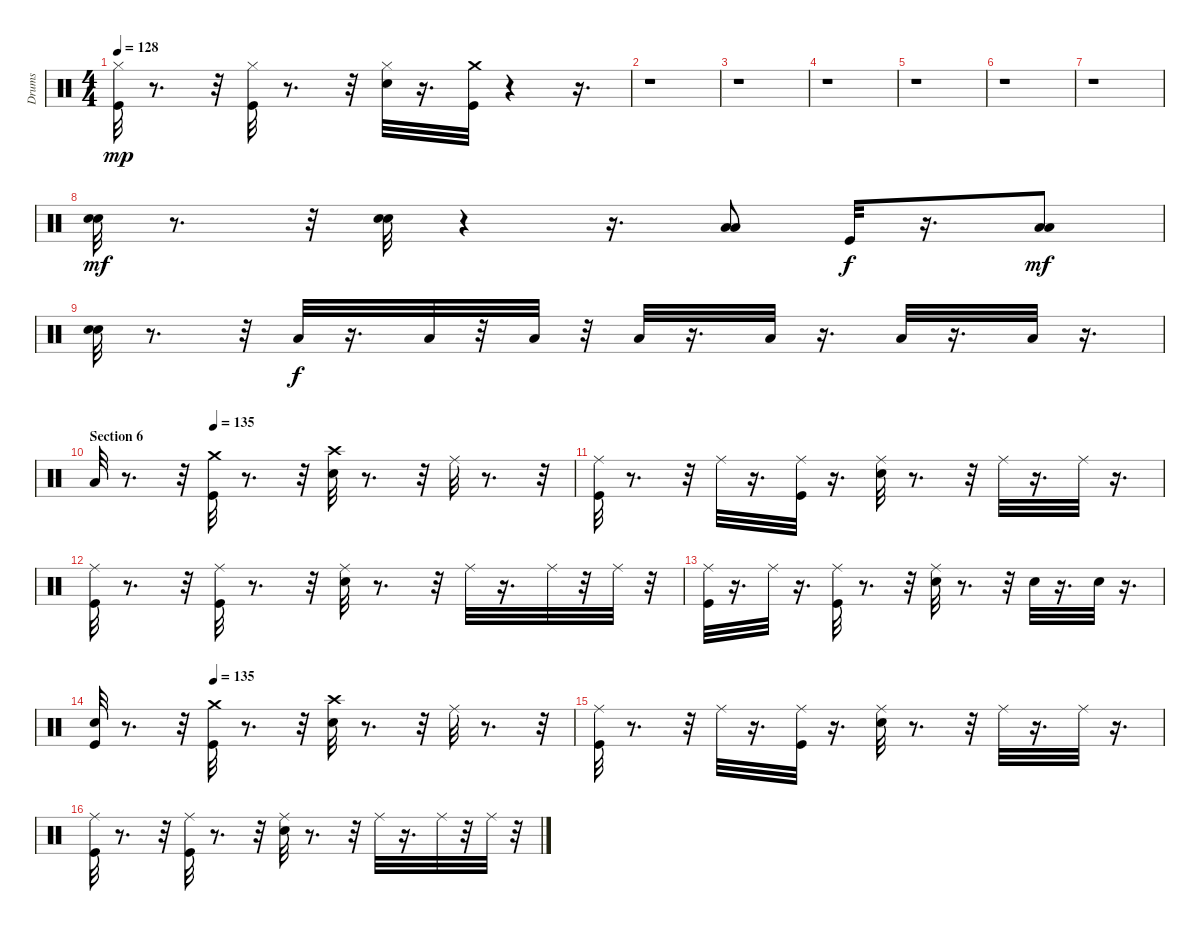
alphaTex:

\track ("Drums" "Drums") {instrument percussion}
\staff {score}
\articulation defaults
\ts (4 4)
\tempo 128
\clef neutral
\ks c
("Kick (hit)" "Hi-Hat (closed)").32{dy mp} r.8{d} r.32 ("Kick (hit)" "Hi-Hat (closed)").32 r.8{d} r.32 ("Snare (hit) 2" "Hi-Hat (closed)").32 r.16{d} ("Kick (hit)" "Crash medium (hit)").32 r.4 r.16{d} |
r.1 |
r.1 |
r.1 |
r.1 |
r.1 |
r.1 |
("Electric Snare (hit)" "Snare (hit) 2").32{dy mf} r.8{d} r.32 ("Electric Snare (hit)" "Snare (hit) 2").32 r.4 r.16{d} ("Low Tom (hit)" "Low Tom (hit)").8 "Kick (hit)".32{dy f} r.16{d} ("Low Floor Tom (hit)" "Low Floor Tom (hit)").8{dy mf} |
("Electric Snare (hit)" "Snare (hit) 2").32 r.8{d} r.32 "Low Tom (hit)".32{dy f} r.16{d} "Low Tom (hit)".32 r.32 "Low Tom (hit)".32 r.32 "Low Tom (hit)".32 r.16{d} "Low Floor Tom (hit)".32 r.16{d} "Low Floor Tom (hit)".32 r.16{d} "Low Floor Tom (hit)".32 r.16{d} |
\section ("" "Section 6")
\tempo (135 0.25)
"Low Floor Tom (hit)".32 r.8{d} r.32 ("Crash medium (hit)" "Kick (hit)").32 r.8{d} r.32 ("Crash high (hit)" "Snare (hit) 2").32 r.8{d} r.32 "Ride (middle)".32 r.8{d} r.32 |
("Kick (hit)" "Ride (middle)").32 r.8{d} r.32 "Ride (middle)".32 r.16{d} ("Kick (hit)" "Ride (middle)").32 r.16{d} ("Snare (hit) 2" "Ride (middle)").32 r.8{d} r.32 "Ride (middle)".32 r.16{d} "Ride (middle)".32 r.16{d} |
("Ride (middle)" "Kick (hit)").32 r.8{d} r.32 ("Ride (middle)" "Kick (hit)").32 r.8{d} r.32 ("Ride (middle)" "Snare (hit) 2").32 r.8{d} r.32 "Ride (middle)".32 r.16{d} "Ride (middle)".32 r.32 "Ride (middle)".32 r.32 |
("Kick (hit)" "Ride (middle)").32 r.16{d} "Ride (middle)".32 r.16{d} ("Kick (hit)" "Ride (middle)").32 r.8{d} r.32 ("Snare (hit) 2" "Ride (middle)").32 r.8{d} r.32 "Snare (hit) 2".32 r.16{d} "Snare (hit) 2".32 r.16{d} |
\tempo (135 0.25)
("Electric Snare (hit)" "Kick (hit)").32 r.8{d} r.32 ("Crash medium (hit)" "Kick (hit)").32 r.8{d} r.32 ("Crash high (hit)" "Snare (hit) 2").32 r.8{d} r.32 "Ride (middle)".32 r.8{d} r.32 |
("Kick (hit)" "Ride (middle)").32 r.8{d} r.32 "Ride (middle)".32 r.16{d} ("Kick (hit)" "Ride (middle)").32 r.16{d} ("Snare (hit) 2" "Ride (middle)").32 r.8{d} r.32 "Ride (middle)".32 r.16{d} "Ride (middle)".32 r.16{d} |
("Ride (middle)" "Kick (hit)").32 r.8{d} r.32 ("Ride (middle)" "Kick (hit)").32 r.8{d} r.32 ("Ride (middle)" "Snare (hit) 2").32 r.8{d} r.32 "Ride (middle)".32 r.16{d} "Ride (middle)".32 r.32 "Ride (middle)".32 r.32
